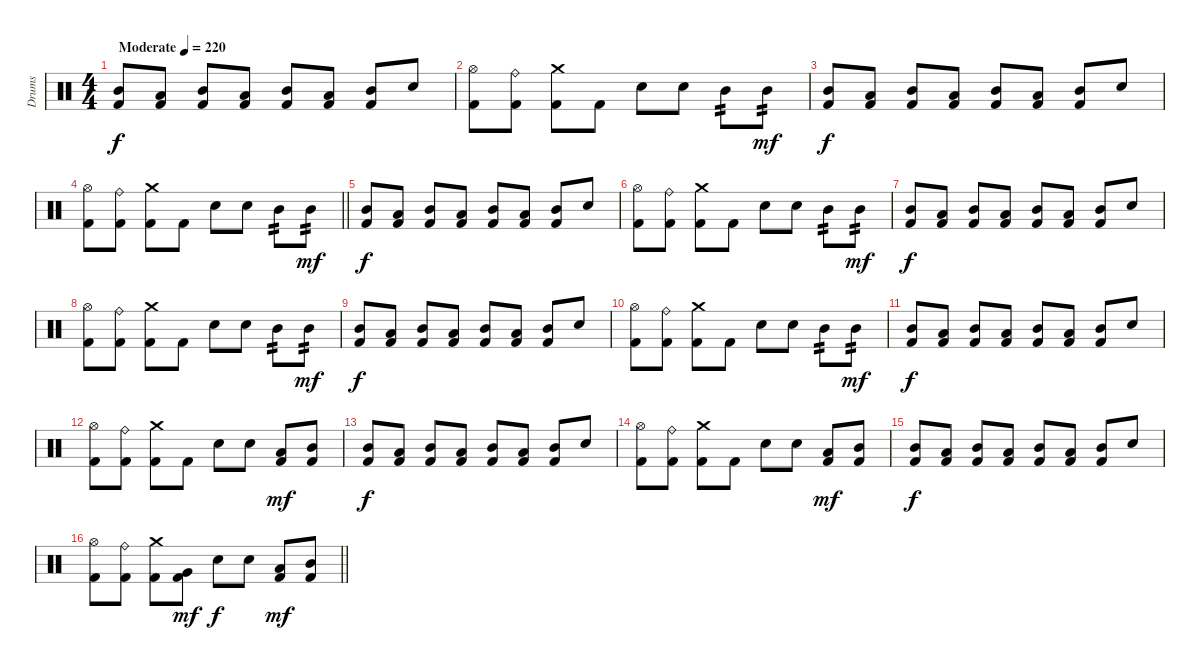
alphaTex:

\track ("Drums" "Drums") {instrument percussion}
\staff {score}
\articulation defaults
\ts (4 4)
\tempo (220 "Moderate")
\clef neutral
\ks c
("Mid Tom (hit)" "Kick (hit) 2").8{dy f} ("Low Tom (hit)" "Kick (hit) 2").8 ("Mid Tom (hit)" "Kick (hit) 2").8 ("Low Tom (hit)" "Kick (hit) 2").8 ("Mid Tom (hit)" "Kick (hit) 2").8 ("Low Tom (hit)" "Kick (hit) 2").8 ("Mid Tom (hit)" "Kick (hit) 2").8 "Electric Snare (hit)".8 |
("Kick (hit) 2" "Hi-Hat (open)").8 ("Kick (hit) 2" "Ride (bell)").8 ("Kick (hit) 2" "Crash medium (hit)").8 "Kick (hit) 2".8 "Electric Snare (hit)".8 "Electric Snare (hit)".8 "Mid Tom (hit)".8{tp 2} "Mid Tom (hit)".8{tp 2 dy mf} |
("Mid Tom (hit)" "Kick (hit) 2").8{dy f} ("Low Tom (hit)" "Kick (hit) 2").8 ("Mid Tom (hit)" "Kick (hit) 2").8 ("Low Tom (hit)" "Kick (hit) 2").8 ("Mid Tom (hit)" "Kick (hit) 2").8 ("Low Tom (hit)" "Kick (hit) 2").8 ("Mid Tom (hit)" "Kick (hit) 2").8 "Electric Snare (hit)".8 |
\barLineRight lightlight
("Kick (hit) 2" "Hi-Hat (open)").8 ("Kick (hit) 2" "Ride (bell)").8 ("Kick (hit) 2" "Crash medium (hit)").8 "Kick (hit) 2".8 "Electric Snare (hit)".8 "Electric Snare (hit)".8 "Mid Tom (hit)".8{tp 2} "Mid Tom (hit)".8{tp 2 dy mf} |
("Mid Tom (hit)" "Kick (hit) 2").8{dy f} ("Low Tom (hit)" "Kick (hit) 2").8 ("Mid Tom (hit)" "Kick (hit) 2").8 ("Low Tom (hit)" "Kick (hit) 2").8 ("Mid Tom (hit)" "Kick (hit) 2").8 ("Low Tom (hit)" "Kick (hit) 2").8 ("Mid Tom (hit)" "Kick (hit) 2").8 "Electric Snare (hit)".8 |
("Kick (hit) 2" "Hi-Hat (open)").8 ("Kick (hit) 2" "Ride (bell)").8 ("Kick (hit) 2" "Crash medium (hit)").8 "Kick (hit) 2".8 "Electric Snare (hit)".8 "Electric Snare (hit)".8 "Mid Tom (hit)".8{tp 2} "Mid Tom (hit)".8{tp 2 dy mf} |
("Mid Tom (hit)" "Kick (hit) 2").8{dy f} ("Low Tom (hit)" "Kick (hit) 2").8 ("Mid Tom (hit)" "Kick (hit) 2").8 ("Low Tom (hit)" "Kick (hit) 2").8 ("Mid Tom (hit)" "Kick (hit) 2").8 ("Low Tom (hit)" "Kick (hit) 2").8 ("Mid Tom (hit)" "Kick (hit) 2").8 "Electric Snare (hit)".8 |
("Kick (hit) 2" "Hi-Hat (open)").8 ("Kick (hit) 2" "Ride (bell)").8 ("Kick (hit) 2" "Crash medium (hit)").8 "Kick (hit) 2".8 "Electric Snare (hit)".8 "Electric Snare (hit)".8 "Mid Tom (hit)".8{tp 2} "Mid Tom (hit)".8{tp 2 dy mf} |
("Mid Tom (hit)" "Kick (hit) 2").8{dy f} ("Low Tom (hit)" "Kick (hit) 2").8 ("Mid Tom (hit)" "Kick (hit) 2").8 ("Low Tom (hit)" "Kick (hit) 2").8 ("Mid Tom (hit)" "Kick (hit) 2").8 ("Low Tom (hit)" "Kick (hit) 2").8 ("Mid Tom (hit)" "Kick (hit) 2").8 "Electric Snare (hit)".8 |
("Kick (hit) 2" "Hi-Hat (open)").8 ("Kick (hit) 2" "Ride (bell)").8 ("Kick (hit) 2" "Crash medium (hit)").8 "Kick (hit) 2".8 "Electric Snare (hit)".8 "Electric Snare (hit)".8 "Mid Tom (hit)".8{tp 2} "Mid Tom (hit)".8{tp 2 dy mf} |
("Mid Tom (hit)" "Kick (hit) 2").8{dy f} ("Low Tom (hit)" "Kick (hit) 2").8 ("Mid Tom (hit)" "Kick (hit) 2").8 ("Low Tom (hit)" "Kick (hit) 2").8 ("Mid Tom (hit)" "Kick (hit) 2").8 ("Low Tom (hit)" "Kick (hit) 2").8 ("Mid Tom (hit)" "Kick (hit) 2").8 "Electric Snare (hit)".8 |
("Kick (hit) 2" "Hi-Hat (open)").8 ("Kick (hit) 2" "Ride (bell)").8 ("Kick (hit) 2" "Crash medium (hit)").8 "Kick (hit) 2".8 "Electric Snare (hit)".8 "Electric Snare (hit)".8 ("Kick (hit) 2" "Low Tom (hit)").8{dy mf} ("Kick (hit) 2" "Mid Tom (hit)").8 |
("Mid Tom (hit)" "Kick (hit) 2").8{dy f} ("Low Tom (hit)" "Kick (hit) 2").8 ("Mid Tom (hit)" "Kick (hit) 2").8 ("Low Tom (hit)" "Kick (hit) 2").8 ("Mid Tom (hit)" "Kick (hit) 2").8 ("Low Tom (hit)" "Kick (hit) 2").8 ("Mid Tom (hit)" "Kick (hit) 2").8 "Electric Snare (hit)".8 |
("Kick (hit) 2" "Hi-Hat (open)").8 ("Kick (hit) 2" "Ride (bell)").8 ("Kick (hit) 2" "Crash medium (hit)").8 "Kick (hit) 2".8 "Electric Snare (hit)".8 "Electric Snare (hit)".8 ("Kick (hit) 2" "Low Tom (hit)").8{dy mf} ("Kick (hit) 2" "Mid Tom (hit)").8 |
("Mid Tom (hit)" "Kick (hit) 2").8{dy f} ("Low Tom (hit)" "Kick (hit) 2").8 ("Mid Tom (hit)" "Kick (hit) 2").8 ("Low Tom (hit)" "Kick (hit) 2").8 ("Mid Tom (hit)" "Kick (hit) 2").8 ("Low Tom (hit)" "Kick (hit) 2").8 ("Mid Tom (hit)" "Kick (hit) 2").8 "Electric Snare (hit)".8 |
\barLineRight lightlight
("Kick (hit) 2" "Hi-Hat (open)").8 ("Kick (hit) 2" "Ride (bell)").8 ("Kick (hit) 2" "Crash medium (hit)").8 ("Kick (hit) 2" "Very Low Tom (hit)").8{dy mf} "Electric Snare (hit)".8{dy f} "Electric Snare (hit)".8 ("Kick (hit) 2" "Low Tom (hit)").8{dy mf} ("Kick (hit) 2" "Mid Tom (hit)").8
